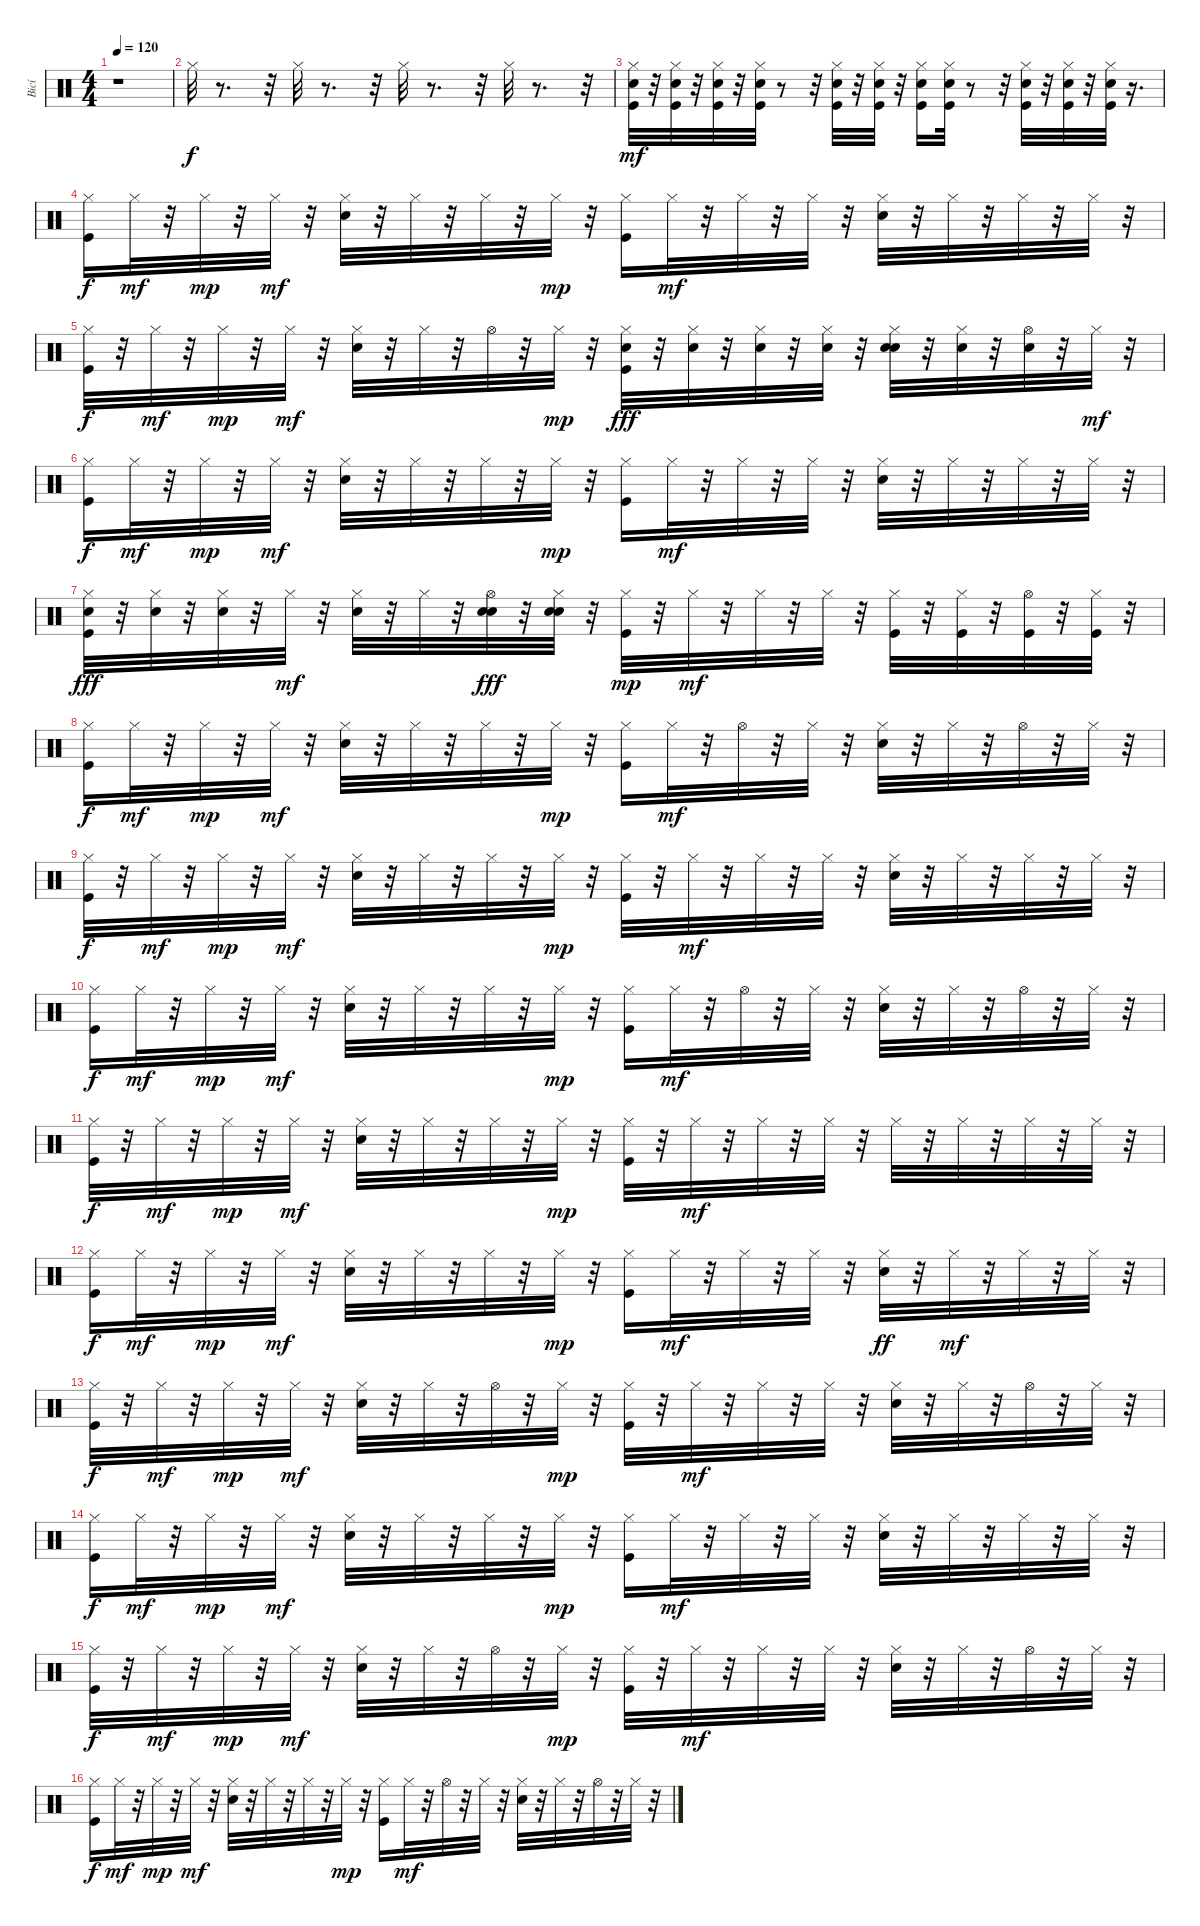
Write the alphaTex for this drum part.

\track ("Bicí" "Bicí") {instrument percussion}
\staff {score}
\articulation defaults
\ts (4 4)
\tempo 120
\clef neutral
\ks c
r.1{dy f} |
"Hi-Hat (closed)".32 r.8{d} r.32 "Hi-Hat (closed)".32 r.8{d} r.32 "Hi-Hat (closed)".32 r.8{d} r.32 "Hi-Hat (closed)".32 r.8{d} r.32 |
("Hi-Hat (closed)" "Kick (hit)" "Snare (hit) 2").32{dy mf} r.32 ("Hi-Hat (closed)" "Kick (hit)" "Snare (hit) 2").32 r.32 ("Hi-Hat (closed)" "Kick (hit)" "Snare (hit) 2").32 r.32 ("Hi-Hat (closed)" "Kick (hit)" "Snare (hit) 2").32 r.8 r.32 ("Hi-Hat (closed)" "Kick (hit)" "Snare (hit) 2").32 r.32 ("Hi-Hat (closed)" "Kick (hit)" "Snare (hit) 2").32 r.32 ("Hi-Hat (closed)" "Kick (hit)" "Snare (hit) 2").16 ("Hi-Hat (closed)" "Kick (hit)" "Snare (hit) 2").32 r.8 r.32 ("Hi-Hat (closed)" "Kick (hit)" "Snare (hit) 2").32 r.32 ("Hi-Hat (closed)" "Kick (hit)" "Snare (hit) 2").32 r.32 ("Hi-Hat (closed)" "Kick (hit)" "Snare (hit) 2").32 r.16{d} |
("Hi-Hat (closed)" "Kick (hit)").16{dy f} "Hi-Hat (closed)".32{dy mf} r.32 "Hi-Hat (closed)".32{dy mp} r.32 "Hi-Hat (closed)".32{dy mf} r.32 ("Hi-Hat (closed)" "Snare (hit) 2").32 r.32 "Hi-Hat (closed)".32 r.32 "Hi-Hat (closed)".32 r.32 "Hi-Hat (closed)".32{dy mp} r.32 ("Hi-Hat (closed)" "Kick (hit)").16 "Hi-Hat (closed)".32{dy mf} r.32 "Hi-Hat (closed)".32 r.32 "Hi-Hat (closed)".32 r.32 ("Hi-Hat (closed)" "Snare (hit) 2").32 r.32 "Hi-Hat (closed)".32 r.32 "Hi-Hat (closed)".32 r.32 "Hi-Hat (closed)".32 r.32 |
("Hi-Hat (closed)" "Kick (hit)").32{dy f} r.32 "Hi-Hat (closed)".32{dy mf} r.32 "Hi-Hat (closed)".32{dy mp} r.32 "Hi-Hat (closed)".32{dy mf} r.32 ("Hi-Hat (closed)" "Snare (hit) 2").32 r.32 "Hi-Hat (closed)".32 r.32 "Hi-Hat (open)".32 r.32 "Hi-Hat (closed)".32{dy mp} r.32 ("Hi-Hat (closed)" "Kick (hit)" "Snare (hit)").32{dy fff} r.32 ("Hi-Hat (closed)" "Snare (hit)").32 r.32 ("Hi-Hat (closed)" "Snare (hit)").32 r.32 ("Hi-Hat (closed)" "Snare (hit)").32 r.32 ("Hi-Hat (closed)" "Snare (hit) 2" "Snare (hit)").32 r.32 ("Hi-Hat (closed)" "Snare (hit)").32 r.32 ("Hi-Hat (open)" "Snare (hit)").32 r.32 "Hi-Hat (closed)".32{dy mf} r.32 |
("Hi-Hat (closed)" "Kick (hit)").16{dy f} "Hi-Hat (closed)".32{dy mf} r.32 "Hi-Hat (closed)".32{dy mp} r.32 "Hi-Hat (closed)".32{dy mf} r.32 ("Hi-Hat (closed)" "Snare (hit) 2").32 r.32 "Hi-Hat (closed)".32 r.32 "Hi-Hat (closed)".32 r.32 "Hi-Hat (closed)".32{dy mp} r.32 ("Hi-Hat (closed)" "Kick (hit)").16 "Hi-Hat (closed)".32{dy mf} r.32 "Hi-Hat (closed)".32 r.32 "Hi-Hat (closed)".32 r.32 ("Hi-Hat (closed)" "Snare (hit) 2").32 r.32 "Hi-Hat (closed)".32 r.32 "Hi-Hat (closed)".32 r.32 "Hi-Hat (closed)".32 r.32 |
("Hi-Hat (closed)" "Kick (hit)" "Snare (hit)").32{dy fff} r.32 ("Hi-Hat (closed)" "Snare (hit)").32 r.32 ("Hi-Hat (closed)" "Snare (hit)").32 r.32 "Hi-Hat (closed)".32{dy mf} r.32 ("Hi-Hat (closed)" "Snare (hit) 2").32 r.32 "Hi-Hat (closed)".32 r.32 ("Hi-Hat (open)" "Snare (hit) 2" "Snare (hit)").32{dy fff} r.32 ("Hi-Hat (closed)" "Snare (hit) 2" "Snare (hit)").32 r.32 ("Hi-Hat (closed)" "Kick (hit)").32{dy mp} r.32 "Hi-Hat (closed)".32{dy mf} r.32 "Hi-Hat (closed)".32 r.32 "Hi-Hat (closed)".32 r.32 ("Hi-Hat (closed)" "Kick (hit)").32 r.32 ("Hi-Hat (closed)" "Kick (hit)").32 r.32 ("Hi-Hat (open)" "Kick (hit)").32 r.32 ("Hi-Hat (closed)" "Kick (hit)").32 r.32 |
("Hi-Hat (closed)" "Kick (hit)").16{dy f} "Hi-Hat (closed)".32{dy mf} r.32 "Hi-Hat (closed)".32{dy mp} r.32 "Hi-Hat (closed)".32{dy mf} r.32 ("Hi-Hat (closed)" "Snare (hit) 2").32 r.32 "Hi-Hat (closed)".32 r.32 "Hi-Hat (closed)".32 r.32 "Hi-Hat (closed)".32{dy mp} r.32 ("Hi-Hat (closed)" "Kick (hit)").16 "Hi-Hat (closed)".32{dy mf} r.32 "Hi-Hat (open)".32 r.32 "Hi-Hat (closed)".32 r.32 ("Hi-Hat (closed)" "Snare (hit) 2").32 r.32 "Hi-Hat (closed)".32 r.32 "Hi-Hat (open)".32 r.32 "Hi-Hat (closed)".32 r.32 |
("Hi-Hat (closed)" "Kick (hit)").32{dy f} r.32 "Hi-Hat (closed)".32{dy mf} r.32 "Hi-Hat (closed)".32{dy mp} r.32 "Hi-Hat (closed)".32{dy mf} r.32 ("Hi-Hat (closed)" "Snare (hit) 2").32 r.32 "Hi-Hat (closed)".32 r.32 "Hi-Hat (closed)".32 r.32 "Hi-Hat (closed)".32{dy mp} r.32 ("Hi-Hat (closed)" "Kick (hit)").32 r.32 "Hi-Hat (closed)".32{dy mf} r.32 "Hi-Hat (closed)".32 r.32 "Hi-Hat (closed)".32 r.32 ("Hi-Hat (closed)" "Snare (hit) 2").32 r.32 "Hi-Hat (closed)".32 r.32 "Hi-Hat (closed)".32 r.32 "Hi-Hat (closed)".32 r.32 |
("Hi-Hat (closed)" "Kick (hit)").16{dy f} "Hi-Hat (closed)".32{dy mf} r.32 "Hi-Hat (closed)".32{dy mp} r.32 "Hi-Hat (closed)".32{dy mf} r.32 ("Hi-Hat (closed)" "Snare (hit) 2").32 r.32 "Hi-Hat (closed)".32 r.32 "Hi-Hat (closed)".32 r.32 "Hi-Hat (closed)".32{dy mp} r.32 ("Hi-Hat (closed)" "Kick (hit)").16 "Hi-Hat (closed)".32{dy mf} r.32 "Hi-Hat (open)".32 r.32 "Hi-Hat (closed)".32 r.32 ("Hi-Hat (closed)" "Snare (hit) 2").32 r.32 "Hi-Hat (closed)".32 r.32 "Hi-Hat (open)".32 r.32 "Hi-Hat (closed)".32 r.32 |
("Hi-Hat (closed)" "Kick (hit)").32{dy f} r.32 "Hi-Hat (closed)".32{dy mf} r.32 "Hi-Hat (closed)".32{dy mp} r.32 "Hi-Hat (closed)".32{dy mf} r.32 ("Hi-Hat (closed)" "Snare (hit) 2").32 r.32 "Hi-Hat (closed)".32 r.32 "Hi-Hat (closed)".32 r.32 "Hi-Hat (closed)".32{dy mp} r.32 ("Hi-Hat (closed)" "Kick (hit)").32 r.32 "Hi-Hat (closed)".32{dy mf} r.32 "Hi-Hat (closed)".32 r.32 "Hi-Hat (closed)".32 r.32 "Hi-Hat (closed)".32 r.32 "Hi-Hat (closed)".32 r.32 "Hi-Hat (closed)".32 r.32 "Hi-Hat (closed)".32 r.32 |
("Hi-Hat (closed)" "Kick (hit)").16{dy f} "Hi-Hat (closed)".32{dy mf} r.32 "Hi-Hat (closed)".32{dy mp} r.32 "Hi-Hat (closed)".32{dy mf} r.32 ("Hi-Hat (closed)" "Snare (hit) 2").32 r.32 "Hi-Hat (closed)".32 r.32 "Hi-Hat (closed)".32 r.32 "Hi-Hat (closed)".32{dy mp} r.32 ("Hi-Hat (closed)" "Kick (hit)").16 "Hi-Hat (closed)".32{dy mf} r.32 "Hi-Hat (closed)".32 r.32 "Hi-Hat (closed)".32 r.32 ("Hi-Hat (closed)" "Snare (hit) 2").32{dy ff} r.32 "Hi-Hat (closed)".32{dy mf} r.32 "Hi-Hat (closed)".32 r.32 "Hi-Hat (closed)".32 r.32 |
("Hi-Hat (closed)" "Kick (hit)").32{dy f} r.32 "Hi-Hat (closed)".32{dy mf} r.32 "Hi-Hat (closed)".32{dy mp} r.32 "Hi-Hat (closed)".32{dy mf} r.32 ("Hi-Hat (closed)" "Snare (hit) 2").32 r.32 "Hi-Hat (closed)".32 r.32 "Hi-Hat (open)".32 r.32 "Hi-Hat (closed)".32{dy mp} r.32 ("Hi-Hat (closed)" "Kick (hit)").32 r.32 "Hi-Hat (closed)".32{dy mf} r.32 "Hi-Hat (closed)".32 r.32 "Hi-Hat (closed)".32 r.32 ("Hi-Hat (closed)" "Snare (hit) 2").32 r.32 "Hi-Hat (closed)".32 r.32 "Hi-Hat (open)".32 r.32 "Hi-Hat (closed)".32 r.32 |
("Hi-Hat (closed)" "Kick (hit)").16{dy f} "Hi-Hat (closed)".32{dy mf} r.32 "Hi-Hat (closed)".32{dy mp} r.32 "Hi-Hat (closed)".32{dy mf} r.32 ("Hi-Hat (closed)" "Snare (hit) 2").32 r.32 "Hi-Hat (closed)".32 r.32 "Hi-Hat (closed)".32 r.32 "Hi-Hat (closed)".32{dy mp} r.32 ("Hi-Hat (closed)" "Kick (hit)").16 "Hi-Hat (closed)".32{dy mf} r.32 "Hi-Hat (closed)".32 r.32 "Hi-Hat (closed)".32 r.32 ("Hi-Hat (closed)" "Snare (hit) 2").32 r.32 "Hi-Hat (closed)".32 r.32 "Hi-Hat (closed)".32 r.32 "Hi-Hat (closed)".32 r.32 |
("Hi-Hat (closed)" "Kick (hit)").32{dy f} r.32 "Hi-Hat (closed)".32{dy mf} r.32 "Hi-Hat (closed)".32{dy mp} r.32 "Hi-Hat (closed)".32{dy mf} r.32 ("Hi-Hat (closed)" "Snare (hit) 2").32 r.32 "Hi-Hat (closed)".32 r.32 "Hi-Hat (open)".32 r.32 "Hi-Hat (closed)".32{dy mp} r.32 ("Hi-Hat (closed)" "Kick (hit)").32 r.32 "Hi-Hat (closed)".32{dy mf} r.32 "Hi-Hat (closed)".32 r.32 "Hi-Hat (closed)".32 r.32 ("Hi-Hat (closed)" "Snare (hit) 2").32 r.32 "Hi-Hat (closed)".32 r.32 "Hi-Hat (open)".32 r.32 "Hi-Hat (closed)".32 r.32 |
("Hi-Hat (closed)" "Kick (hit)").16{dy f} "Hi-Hat (closed)".32{dy mf} r.32 "Hi-Hat (closed)".32{dy mp} r.32 "Hi-Hat (closed)".32{dy mf} r.32 ("Hi-Hat (closed)" "Snare (hit) 2").32 r.32 "Hi-Hat (closed)".32 r.32 "Hi-Hat (closed)".32 r.32 "Hi-Hat (closed)".32{dy mp} r.32 ("Hi-Hat (closed)" "Kick (hit)").16 "Hi-Hat (closed)".32{dy mf} r.32 "Hi-Hat (open)".32 r.32 "Hi-Hat (closed)".32 r.32 ("Hi-Hat (closed)" "Snare (hit) 2").32 r.32 "Hi-Hat (closed)".32 r.32 "Hi-Hat (open)".32 r.32 "Hi-Hat (closed)".32 r.32
